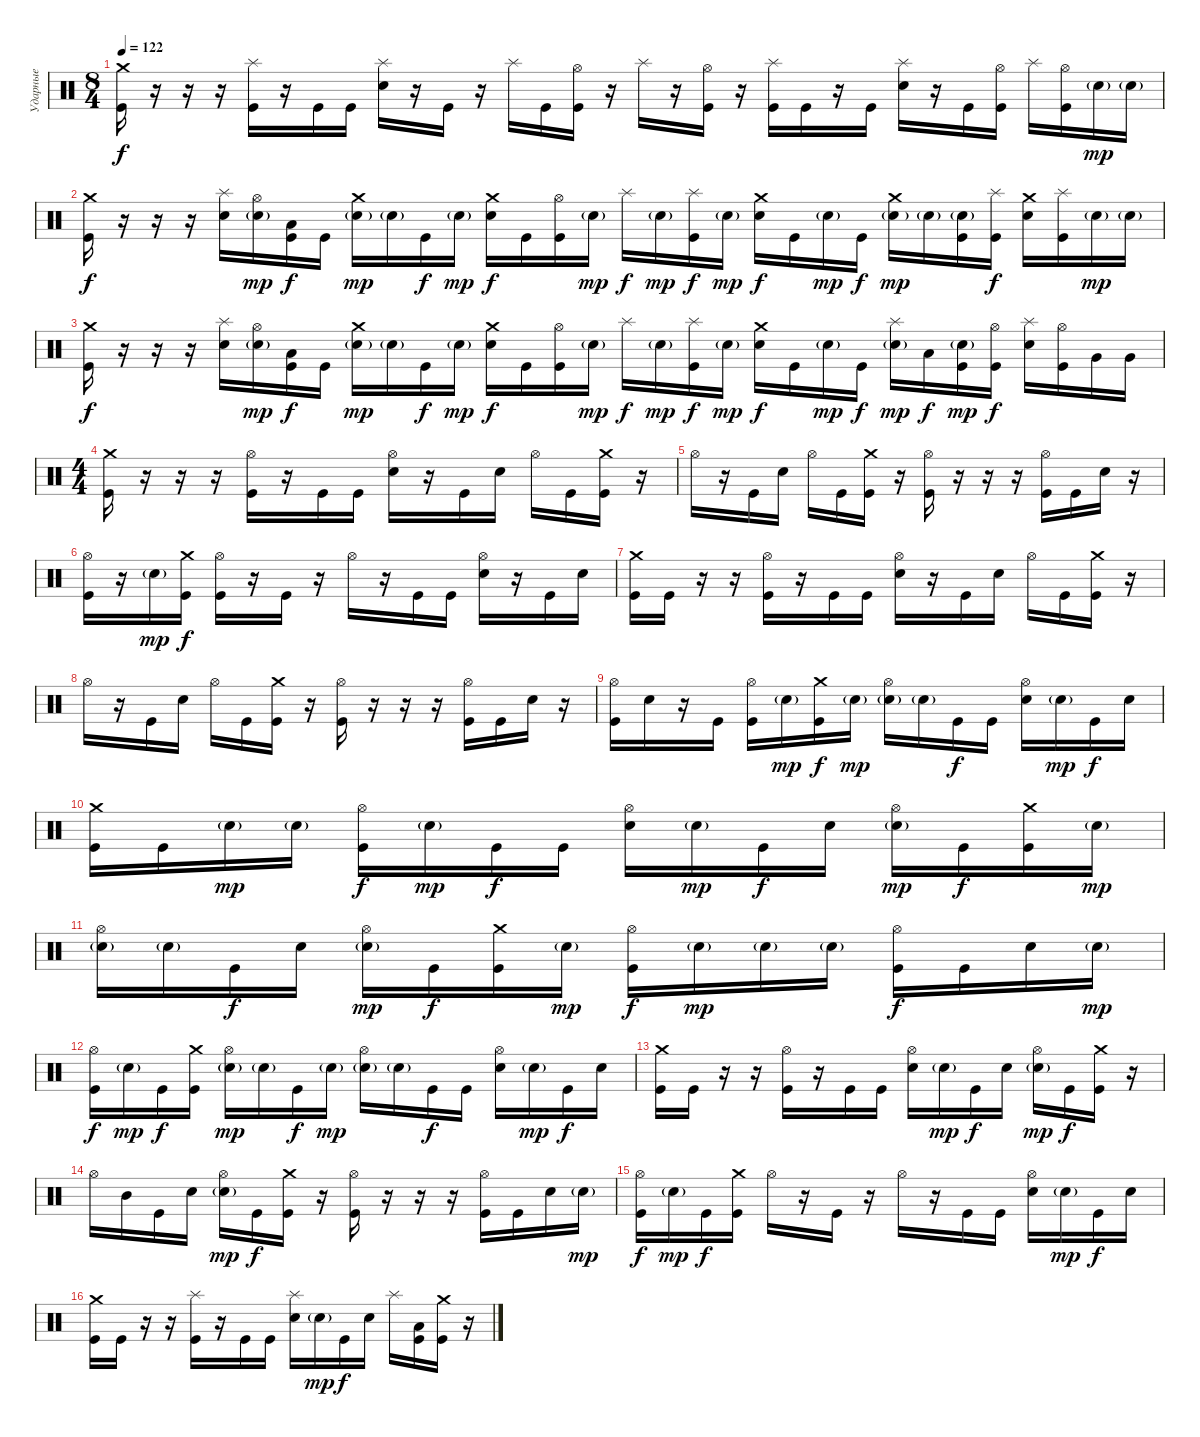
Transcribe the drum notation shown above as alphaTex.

\track ("Ударные" "Ударные") {instrument percussion}
\staff {score}
\articulation defaults
\ts (8 4)
\tempo 122
\clef neutral
\ks c
("Crash medium (hit)" "Kick (hit)").16{dy f} r.16 r.16 r.16 ("Splash (hit)" "Kick (hit)").16 r.16 "Kick (hit)".16 "Kick (hit)".16 ("Splash (hit)" "Electric Snare (hit)").16 r.16 "Kick (hit)".16 r.16 "Splash (hit)".16 "Kick (hit)".16 ("Hi-Hat (open)" "Kick (hit)").16 r.16 "Splash (hit)".16 r.16 ("Hi-Hat (open)" "Kick (hit)").16 r.16 ("Splash (hit)" "Kick (hit)").16 "Kick (hit)".16 r.16 "Kick (hit)".16 ("Splash (hit)" "Electric Snare (hit)").16 r.16 "Kick (hit)".16 ("Hi-Hat (open)" "Kick (hit)").16 "Splash (hit)".16 ("Hi-Hat (open)" "Kick (hit)").16 "Electric Snare (hit)"{g}.16{dy mp} "Electric Snare (hit)"{g}.16 |
("Crash medium (hit)" "Kick (hit)").16{dy f} r.16 r.16 r.16 ("Splash (hit)" "Electric Snare (hit)").16 ("Hi-Hat (open)" "Electric Snare (hit)"{g}).16{dy mp} ("Low Tom (hit)" "Kick (hit)").16{dy f} "Kick (hit)".16 ("Crash medium (hit)" "Electric Snare (hit)"{g}).16{dy mp} "Electric Snare (hit)"{g}.16 "Kick (hit)".16{dy f} "Electric Snare (hit)"{g}.16{dy mp} ("Crash medium (hit)" "Electric Snare (hit)").16{dy f} "Kick (hit)".16 ("Hi-Hat (open)" "Kick (hit)").16 "Electric Snare (hit)"{g}.16{dy mp} "Splash (hit)".16{dy f} "Electric Snare (hit)"{g}.16{dy mp} ("Splash (hit)" "Kick (hit)").16{dy f} "Electric Snare (hit)"{g}.16{dy mp} ("Crash medium (hit)" "Electric Snare (hit)").16{dy f} "Kick (hit)".16 "Electric Snare (hit)"{g}.16{dy mp} "Kick (hit)".16{dy f} ("Crash medium (hit)" "Electric Snare (hit)"{g}).16{dy mp} "Electric Snare (hit)"{g}.16 ("Electric Snare (hit)"{g} "Kick (hit)").16 ("Splash (hit)" "Kick (hit)").16{dy f} ("Crash medium (hit)" "Electric Snare (hit)").16 ("Splash (hit)" "Kick (hit)").16 "Electric Snare (hit)"{g}.16{dy mp} "Electric Snare (hit)"{g}.16 |
("Crash medium (hit)" "Kick (hit)").16{dy f} r.16 r.16 r.16 ("Splash (hit)" "Electric Snare (hit)").16 ("Hi-Hat (open)" "Electric Snare (hit)"{g}).16{dy mp} ("Low Tom (hit)" "Kick (hit)").16{dy f} "Kick (hit)".16 ("Crash medium (hit)" "Electric Snare (hit)"{g}).16{dy mp} "Electric Snare (hit)"{g}.16 "Kick (hit)".16{dy f} "Electric Snare (hit)"{g}.16{dy mp} ("Crash medium (hit)" "Electric Snare (hit)").16{dy f} "Kick (hit)".16 ("Hi-Hat (open)" "Kick (hit)").16 "Electric Snare (hit)"{g}.16{dy mp} "Splash (hit)".16{dy f} "Electric Snare (hit)"{g}.16{dy mp} ("Splash (hit)" "Kick (hit)").16{dy f} "Electric Snare (hit)"{g}.16{dy mp} ("Crash medium (hit)" "Electric Snare (hit)").16{dy f} "Kick (hit)".16 "Electric Snare (hit)"{g}.16{dy mp} "Kick (hit)".16{dy f} ("Splash (hit)" "Electric Snare (hit)"{g}).16{dy mp} "Low Tom (hit)".16{dy f} ("Electric Snare (hit)"{g} "Kick (hit)").16{dy mp} ("Hi-Hat (open)" "Kick (hit)").16{dy f} ("Splash (hit)" "Electric Snare (hit)").16 ("Hi-Hat (open)" "Kick (hit)").16 "Very Low Tom (hit)".16 "Very Low Tom (hit)".16 |
\ts (4 4)
("Crash medium (hit)" "Kick (hit)").16 r.16 r.16 r.16 ("Hi-Hat (open)" "Kick (hit)").16 r.16 "Kick (hit)".16 "Kick (hit)".16 ("Hi-Hat (open)" "Electric Snare (hit)").16 r.16 "Kick (hit)".16 "Electric Snare (hit)".16 "Hi-Hat (open)".16 "Kick (hit)".16 ("Crash medium (hit)" "Kick (hit)").16 r.16 |
"Hi-Hat (open)".16 r.16 "Kick (hit)".16 "Electric Snare (hit)".16 "Hi-Hat (open)".16 "Kick (hit)".16 ("Crash medium (hit)" "Kick (hit)").16 r.16 ("Hi-Hat (open)" "Kick (hit)").16 r.16 r.16 r.16 ("Hi-Hat (open)" "Kick (hit)").16 "Kick (hit)".16 "Electric Snare (hit)".16 r.16 |
("Hi-Hat (open)" "Kick (hit)").16 r.16 "Electric Snare (hit)"{g}.16{dy mp} ("Crash medium (hit)" "Kick (hit)").16{dy f} ("Hi-Hat (open)" "Kick (hit)").16 r.16 "Kick (hit)".16 r.16 "Hi-Hat (open)".16 r.16 "Kick (hit)".16 "Kick (hit)".16 ("Hi-Hat (open)" "Electric Snare (hit)").16 r.16 "Kick (hit)".16 "Electric Snare (hit)".16 |
("Crash medium (hit)" "Kick (hit)").16 "Kick (hit)".16 r.16 r.16 ("Hi-Hat (open)" "Kick (hit)").16 r.16 "Kick (hit)".16 "Kick (hit)".16 ("Hi-Hat (open)" "Electric Snare (hit)").16 r.16 "Kick (hit)".16 "Electric Snare (hit)".16 "Hi-Hat (open)".16 "Kick (hit)".16 ("Crash medium (hit)" "Kick (hit)").16 r.16 |
"Hi-Hat (open)".16 r.16 "Kick (hit)".16 "Electric Snare (hit)".16 "Hi-Hat (open)".16 "Kick (hit)".16 ("Crash medium (hit)" "Kick (hit)").16 r.16 ("Hi-Hat (open)" "Kick (hit)").16 r.16 r.16 r.16 ("Hi-Hat (open)" "Kick (hit)").16 "Kick (hit)".16 "Electric Snare (hit)".16 r.16 |
("Hi-Hat (open)" "Kick (hit)").16 "Electric Snare (hit)".16 r.16 "Kick (hit)".16 ("Hi-Hat (open)" "Kick (hit)").16 "Electric Snare (hit)"{g}.16{dy mp} ("Crash medium (hit)" "Kick (hit)").16{dy f} "Electric Snare (hit)"{g}.16{dy mp} ("Hi-Hat (open)" "Electric Snare (hit)"{g}).16 "Electric Snare (hit)"{g}.16 "Kick (hit)".16{dy f} "Kick (hit)".16 ("Hi-Hat (open)" "Electric Snare (hit)").16 "Electric Snare (hit)"{g}.16{dy mp} "Kick (hit)".16{dy f} "Electric Snare (hit)".16 |
("Crash medium (hit)" "Kick (hit)").16 "Kick (hit)".16 "Electric Snare (hit)"{g}.16{dy mp} "Electric Snare (hit)"{g}.16 ("Hi-Hat (open)" "Kick (hit)").16{dy f} "Electric Snare (hit)"{g}.16{dy mp} "Kick (hit)".16{dy f} "Kick (hit)".16 ("Hi-Hat (open)" "Electric Snare (hit)").16 "Electric Snare (hit)"{g}.16{dy mp} "Kick (hit)".16{dy f} "Electric Snare (hit)".16 ("Hi-Hat (open)" "Electric Snare (hit)"{g}).16{dy mp} "Kick (hit)".16{dy f} ("Crash medium (hit)" "Kick (hit)").16 "Electric Snare (hit)"{g}.16{dy mp} |
("Hi-Hat (open)" "Electric Snare (hit)"{g}).16 "Electric Snare (hit)"{g}.16 "Kick (hit)".16{dy f} "Electric Snare (hit)".16 ("Hi-Hat (open)" "Electric Snare (hit)"{g}).16{dy mp} "Kick (hit)".16{dy f} ("Crash medium (hit)" "Kick (hit)").16 "Electric Snare (hit)"{g}.16{dy mp} ("Hi-Hat (open)" "Kick (hit)").16{dy f} "Electric Snare (hit)"{g}.16{dy mp} "Electric Snare (hit)"{g}.16 "Electric Snare (hit)"{g}.16 ("Hi-Hat (open)" "Kick (hit)").16{dy f} "Kick (hit)".16 "Electric Snare (hit)".16 "Electric Snare (hit)"{g}.16{dy mp} |
("Hi-Hat (open)" "Kick (hit)").16{dy f} "Electric Snare (hit)"{g}.16{dy mp} "Kick (hit)".16{dy f} ("Crash medium (hit)" "Kick (hit)").16 ("Hi-Hat (open)" "Electric Snare (hit)"{g}).16{dy mp} "Electric Snare (hit)"{g}.16 "Kick (hit)".16{dy f} "Electric Snare (hit)"{g}.16{dy mp} ("Hi-Hat (open)" "Electric Snare (hit)"{g}).16 "Electric Snare (hit)"{g}.16 "Kick (hit)".16{dy f} "Kick (hit)".16 ("Hi-Hat (open)" "Electric Snare (hit)").16 "Electric Snare (hit)"{g}.16{dy mp} "Kick (hit)".16{dy f} "Electric Snare (hit)".16 |
("Crash medium (hit)" "Kick (hit)").16 "Kick (hit)".16 r.16 r.16 ("Hi-Hat (open)" "Kick (hit)").16 r.16 "Kick (hit)".16 "Kick (hit)".16 ("Hi-Hat (open)" "Electric Snare (hit)").16 "Electric Snare (hit)"{g}.16{dy mp} "Kick (hit)".16{dy f} "Electric Snare (hit)".16 ("Hi-Hat (open)" "Electric Snare (hit)"{g}).16{dy mp} "Kick (hit)".16{dy f} ("Crash medium (hit)" "Kick (hit)").16 r.16 |
"Hi-Hat (open)".16 "Mid Tom (hit)".16 "Kick (hit)".16 "Electric Snare (hit)".16 ("Hi-Hat (open)" "Electric Snare (hit)"{g}).16{dy mp} "Kick (hit)".16{dy f} ("Crash medium (hit)" "Kick (hit)").16 r.16 ("Hi-Hat (open)" "Kick (hit)").16 r.16 r.16 r.16 ("Hi-Hat (open)" "Kick (hit)").16 "Kick (hit)".16 "Electric Snare (hit)".16 "Electric Snare (hit)"{g}.16{dy mp} |
("Hi-Hat (open)" "Kick (hit)").16{dy f} "Electric Snare (hit)"{g}.16{dy mp} "Kick (hit)".16{dy f} ("Crash medium (hit)" "Kick (hit)").16 "Hi-Hat (open)".16 r.16 "Kick (hit)".16 r.16 "Hi-Hat (open)".16 r.16 "Kick (hit)".16 "Kick (hit)".16 ("Hi-Hat (open)" "Electric Snare (hit)").16 "Electric Snare (hit)"{g}.16{dy mp} "Kick (hit)".16{dy f} "Electric Snare (hit)".16 |
("Crash medium (hit)" "Kick (hit)").16 "Kick (hit)".16 r.16 r.16 ("Splash (hit)" "Kick (hit)").16 r.16 "Kick (hit)".16 "Kick (hit)".16 ("Splash (hit)" "Electric Snare (hit)").16 "Electric Snare (hit)"{g}.16{dy mp} "Kick (hit)".16{dy f} "Electric Snare (hit)".16 "Splash (hit)".16 ("Low Tom (hit)" "Kick (hit)").16 ("Crash medium (hit)" "Kick (hit)").16 r.16
